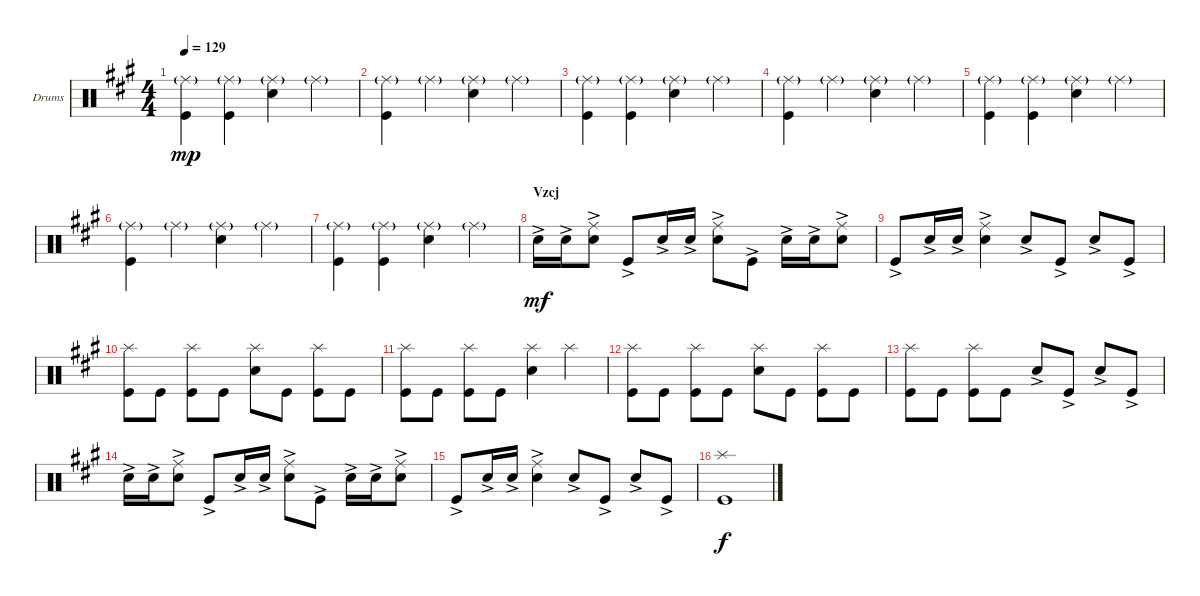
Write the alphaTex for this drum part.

\defaultSystemsLayout 4
\bracketExtendMode groupsimilarinstruments
\firstSystemTrackNameOrientation horizontal
\otherSystemsTrackNameOrientation horizontal
\track ("Drumkit" "Drums") {instrument percussion}
\staff {score}
\articulation defaults
\ts (4 4)
\tempo 129
\clef neutral
\ks f#minor
("Kick (hit)" "Ride (middle)"{g}).4{dy mp} ("Kick (hit)" "Ride (middle)"{g}).4 ("Snare (hit) 2" "Ride (middle)"{g}).4 "Ride (middle)"{g}.4 |
("Kick (hit)" "Ride (middle)"{g}).4 "Ride (middle)"{g}.4 ("Snare (hit) 2" "Ride (middle)"{g}).4 "Ride (middle)"{g}.4 |
("Kick (hit)" "Ride (middle)"{g}).4 ("Kick (hit)" "Ride (middle)"{g}).4 ("Snare (hit) 2" "Ride (middle)"{g}).4 "Ride (middle)"{g}.4 |
("Kick (hit)" "Ride (middle)"{g}).4 "Ride (middle)"{g}.4 ("Snare (hit) 2" "Ride (middle)"{g}).4 "Ride (middle)"{g}.4 |
("Kick (hit)" "Ride (middle)"{g}).4 ("Kick (hit)" "Ride (middle)"{g}).4 ("Snare (hit) 2" "Ride (middle)"{g}).4 "Ride (middle)"{g}.4 |
("Kick (hit)" "Ride (middle)"{g}).4 "Ride (middle)"{g}.4 ("Snare (hit) 2" "Ride (middle)"{g}).4 "Ride (middle)"{g}.4 |
("Kick (hit)" "Ride (middle)"{g}).4 ("Kick (hit)" "Ride (middle)"{g}).4 ("Snare (hit) 2" "Ride (middle)"{g}).4 "Ride (middle)"{g}.4 |
\section ("" "Vzcj")
"Snare (hit) 2"{ac}.16{dy mf} "Snare (hit) 2"{ac}.16 ("Snare (hit) 2"{ac} "Ride (middle)"{ac}).8 "Kick (hit)"{ac}.8 "Snare (hit) 2"{ac}.16 "Snare (hit) 2"{ac}.16 ("Snare (hit) 2"{ac} "Ride (middle)"{ac}).8 "Kick (hit)"{ac}.8 "Snare (hit) 2"{ac}.16 "Snare (hit) 2"{ac}.16 ("Snare (hit) 2"{ac} "Ride (middle)"{ac}).8 |
"Kick (hit)"{ac}.8 "Snare (hit) 2"{ac}.16 "Snare (hit) 2"{ac}.16 ("Snare (hit) 2"{ac} "Ride (middle)"{ac}).4 "Snare (hit) 2"{ac}.8 "Kick (hit)"{ac}.8 "Snare (hit) 2"{ac}.8 "Kick (hit)"{ac}.8 |
("Kick (hit)" "Splash (hit)").8 "Kick (hit)".8 ("Kick (hit)" "Splash (hit)").8 "Kick (hit)".8 ("Snare (hit) 2" "Splash (hit)").8 "Kick (hit)".8 ("Kick (hit)" "Splash (hit)").8 "Kick (hit)".8 |
("Kick (hit)" "Splash (hit)").8 "Kick (hit)".8 ("Kick (hit)" "Splash (hit)").8 "Kick (hit)".8 ("Snare (hit) 2" "Splash (hit)").4 "Splash (hit)".4 |
("Kick (hit)" "Splash (hit)").8 "Kick (hit)".8 ("Kick (hit)" "Splash (hit)").8 "Kick (hit)".8 ("Snare (hit) 2" "Splash (hit)").8 "Kick (hit)".8 ("Kick (hit)" "Splash (hit)").8 "Kick (hit)".8 |
("Kick (hit)" "Splash (hit)").8 "Kick (hit)".8 ("Kick (hit)" "Splash (hit)").8 "Kick (hit)".8 "Snare (hit) 2"{ac}.8 "Kick (hit)"{ac}.8 "Snare (hit) 2"{ac}.8 "Kick (hit)"{ac}.8 |
"Snare (hit) 2"{ac}.16 "Snare (hit) 2"{ac}.16 ("Snare (hit) 2"{ac} "Ride (middle)"{ac}).8 "Kick (hit)"{ac}.8 "Snare (hit) 2"{ac}.16 "Snare (hit) 2"{ac}.16 ("Snare (hit) 2"{ac} "Ride (middle)"{ac}).8 "Kick (hit)"{ac}.8 "Snare (hit) 2"{ac}.16 "Snare (hit) 2"{ac}.16 ("Snare (hit) 2"{ac} "Ride (middle)"{ac}).8 |
"Kick (hit)"{ac}.8 "Snare (hit) 2"{ac}.16 "Snare (hit) 2"{ac}.16 ("Snare (hit) 2"{ac} "Ride (middle)"{ac}).4 "Snare (hit) 2"{ac}.8 "Kick (hit)"{ac}.8 "Snare (hit) 2"{ac}.8 "Kick (hit)"{ac}.8 |
("Kick (hit)" "Splash (hit)").1{dy f}
